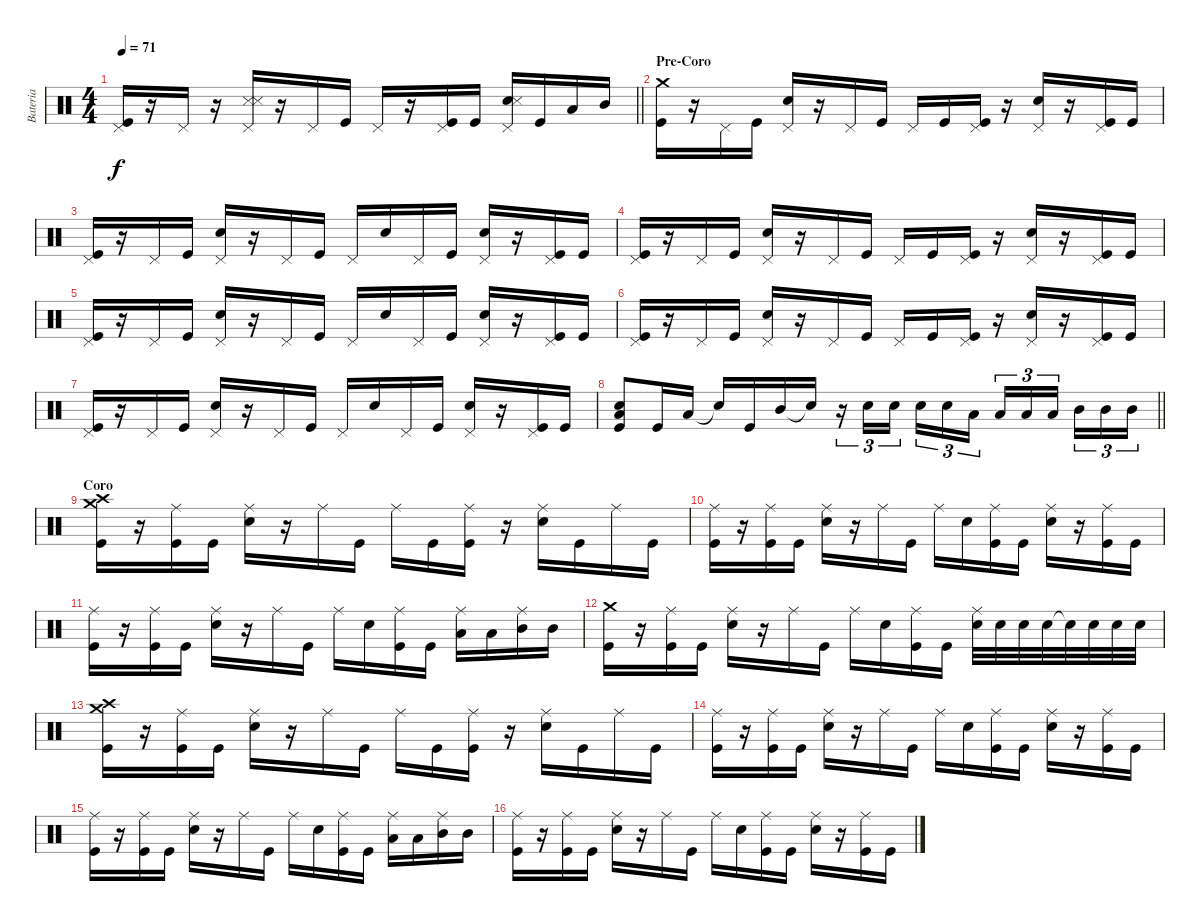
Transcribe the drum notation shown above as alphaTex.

\track ("Bateria" "Bateria") {instrument percussion}
\staff {score}
\articulation defaults
\ts (4 4)
\tempo 71
\clef neutral
\barLineRight lightlight
\ks c
("Pedal Hi-Hat (hit)" "Kick (hit)").16{dy f} r.16 "Pedal Hi-Hat (hit)".16 r.16 ("Pedal Hi-Hat (hit)" "Metronome (hit)" "Metronome (hit)").16 r.16 "Pedal Hi-Hat (hit)".16 "Kick (hit)".16 "Pedal Hi-Hat (hit)".16 r.16 ("Pedal Hi-Hat (hit)" "Kick (hit)").16 "Kick (hit)".16 ("Pedal Hi-Hat (hit)" "Snare (hit) 2" "Metronome (hit)").16 "Kick (hit)".16 "Low Tom (hit)".16 "Mid Tom (hit)".16 |
\section ("" "Pre-Coro")
("Crash medium (hit)" "Kick (hit)").16 r.16 "Pedal Hi-Hat (hit)".16 "Kick (hit)".16 ("Pedal Hi-Hat (hit)" "Snare (hit) 2").16 r.16 "Pedal Hi-Hat (hit)".16 "Kick (hit)".16 "Pedal Hi-Hat (hit)".16 "Kick (hit)".16 ("Pedal Hi-Hat (hit)" "Kick (hit)").16 r.16 ("Pedal Hi-Hat (hit)" "Snare (hit) 2").16 r.16 ("Pedal Hi-Hat (hit)" "Kick (hit)").16 "Kick (hit)".16 |
("Pedal Hi-Hat (hit)" "Kick (hit)").16 r.16 "Pedal Hi-Hat (hit)".16 "Kick (hit)".16 ("Pedal Hi-Hat (hit)" "Snare (hit) 2").16 r.16 "Pedal Hi-Hat (hit)".16 "Kick (hit)".16 "Pedal Hi-Hat (hit)".16 "Snare (hit) 2".16 "Pedal Hi-Hat (hit)".16 "Kick (hit)".16 ("Pedal Hi-Hat (hit)" "Snare (hit) 2").16 r.16 ("Pedal Hi-Hat (hit)" "Kick (hit)").16 "Kick (hit)".16 |
("Pedal Hi-Hat (hit)" "Kick (hit)").16 r.16 "Pedal Hi-Hat (hit)".16 "Kick (hit)".16 ("Pedal Hi-Hat (hit)" "Snare (hit) 2").16 r.16 "Pedal Hi-Hat (hit)".16 "Kick (hit)".16 "Pedal Hi-Hat (hit)".16 "Kick (hit)".16 ("Pedal Hi-Hat (hit)" "Kick (hit)").16 r.16 ("Pedal Hi-Hat (hit)" "Snare (hit) 2").16 r.16 ("Pedal Hi-Hat (hit)" "Kick (hit)").16 "Kick (hit)".16 |
("Pedal Hi-Hat (hit)" "Kick (hit)").16 r.16 "Pedal Hi-Hat (hit)".16 "Kick (hit)".16 ("Pedal Hi-Hat (hit)" "Snare (hit) 2").16 r.16 "Pedal Hi-Hat (hit)".16 "Kick (hit)".16 "Pedal Hi-Hat (hit)".16 "Snare (hit) 2".16 "Pedal Hi-Hat (hit)".16 "Kick (hit)".16 ("Pedal Hi-Hat (hit)" "Snare (hit) 2").16 r.16 ("Pedal Hi-Hat (hit)" "Kick (hit)").16 "Kick (hit)".16 |
("Pedal Hi-Hat (hit)" "Kick (hit)").16 r.16 "Pedal Hi-Hat (hit)".16 "Kick (hit)".16 ("Pedal Hi-Hat (hit)" "Snare (hit) 2").16 r.16 "Pedal Hi-Hat (hit)".16 "Kick (hit)".16 "Pedal Hi-Hat (hit)".16 "Kick (hit)".16 ("Pedal Hi-Hat (hit)" "Kick (hit)").16 r.16 ("Pedal Hi-Hat (hit)" "Snare (hit) 2").16 r.16 ("Pedal Hi-Hat (hit)" "Kick (hit)").16 "Kick (hit)".16 |
("Pedal Hi-Hat (hit)" "Kick (hit)").16 r.16 "Pedal Hi-Hat (hit)".16 "Kick (hit)".16 ("Pedal Hi-Hat (hit)" "Snare (hit) 2").16 r.16 "Pedal Hi-Hat (hit)".16 "Kick (hit)".16 "Pedal Hi-Hat (hit)".16 "Snare (hit) 2".16 "Pedal Hi-Hat (hit)".16 "Kick (hit)".16 ("Pedal Hi-Hat (hit)" "Snare (hit) 2").16 r.16 ("Pedal Hi-Hat (hit)" "Kick (hit)").16 "Kick (hit)".16 |
\barLineRight lightlight
("Snare (hit) 2" "Kick (hit)" "Low Tom (hit)").8{bd 60} "Kick (hit)".16 "Low Tom (hit)".16 "Snare (hit)"{t}.16 "Kick (hit)".16 "Mid Tom (hit)".16 "Snare (hit)"{t}.16 r.16{tu (3 2)} "Snare (hit) 2".16{tu (3 2)} "Snare (hit) 2".16{tu (3 2) beam splitsecondary} "Snare (hit) 2".16{tu (3 2)} "Snare (hit) 2".16{tu (3 2)} "Low Tom (hit)".16{tu (3 2)} "Low Tom (hit)".16{tu (3 2)} "Low Tom (hit)".16{tu (3 2)} "Low Tom (hit)".16{tu (3 2) beam splitsecondary} "Mid Tom (hit)".16{tu (3 2)} "Mid Tom (hit)".16{tu (3 2)} "Mid Tom (hit)".16{tu (3 2)} |
\section ("" "Coro")
("Crash high (hit)" "Crash medium (hit)" "Kick (hit)").16 r.16 ("Ride (middle)" "Kick (hit)").16 "Kick (hit)".16 ("Ride (middle)" "Snare (hit) 2").16 r.16 "Ride (middle)".16 "Kick (hit)".16 "Ride (middle)".16 "Kick (hit)".16 ("Ride (middle)" "Kick (hit)").16 r.16 ("Ride (middle)" "Snare (hit) 2").16 "Kick (hit)".16 "Ride (middle)".16 "Kick (hit)".16 |
("Ride (middle)" "Kick (hit)").16 r.16 ("Ride (middle)" "Kick (hit)").16 "Kick (hit)".16 ("Ride (middle)" "Snare (hit) 2").16 r.16 "Ride (middle)".16 "Kick (hit)".16 "Ride (middle)".16 "Snare (hit) 2".16 ("Ride (middle)" "Kick (hit)").16 "Kick (hit)".16 ("Ride (middle)" "Snare (hit) 2").16 r.16 ("Ride (middle)" "Kick (hit)").16 "Kick (hit)".16 |
("Ride (middle)" "Kick (hit)").16 r.16 ("Ride (middle)" "Kick (hit)").16 "Kick (hit)".16 ("Ride (middle)" "Snare (hit) 2").16 r.16 "Ride (middle)".16 "Kick (hit)".16 "Ride (middle)".16 "Snare (hit) 2".16 ("Ride (middle)" "Kick (hit)").16 "Kick (hit)".16 ("Ride (middle)" "Low Tom (hit)").16 "Low Tom (hit)".16 ("Ride (middle)" "Mid Tom (hit)").16 "Mid Tom (hit)".16 |
("Crash medium (hit)" "Kick (hit)").16 r.16 ("Ride (middle)" "Kick (hit)").16 "Kick (hit)".16 ("Ride (middle)" "Snare (hit) 2").16 r.16 "Ride (middle)".16 "Kick (hit)".16 "Ride (middle)".16 "Snare (hit) 2".16 ("Ride (middle)" "Kick (hit)").16 "Kick (hit)".16 ("Ride (middle)" "Snare (hit) 2").32 "Snare (hit) 2".32 "Snare (hit) 2".32 "Snare (hit) 2".32 "Snare (hit) 2"{t}.32 "Snare (hit) 2".32 "Snare (hit) 2".32 "Snare (hit) 2".32 |
("Crash high (hit)" "Crash medium (hit)" "Kick (hit)").16 r.16 ("Ride (middle)" "Kick (hit)").16 "Kick (hit)".16 ("Ride (middle)" "Snare (hit) 2").16 r.16 "Ride (middle)".16 "Kick (hit)".16 "Ride (middle)".16 "Kick (hit)".16 ("Ride (middle)" "Kick (hit)").16 r.16 ("Ride (middle)" "Snare (hit) 2").16 "Kick (hit)".16 "Ride (middle)".16 "Kick (hit)".16 |
("Ride (middle)" "Kick (hit)").16 r.16 ("Ride (middle)" "Kick (hit)").16 "Kick (hit)".16 ("Ride (middle)" "Snare (hit) 2").16 r.16 "Ride (middle)".16 "Kick (hit)".16 "Ride (middle)".16 "Snare (hit) 2".16 ("Ride (middle)" "Kick (hit)").16 "Kick (hit)".16 ("Ride (middle)" "Snare (hit) 2").16 r.16 ("Ride (middle)" "Kick (hit)").16 "Kick (hit)".16 |
("Ride (middle)" "Kick (hit)").16 r.16 ("Ride (middle)" "Kick (hit)").16 "Kick (hit)".16 ("Ride (middle)" "Snare (hit) 2").16 r.16 "Ride (middle)".16 "Kick (hit)".16 "Ride (middle)".16 "Snare (hit) 2".16 ("Ride (middle)" "Kick (hit)").16 "Kick (hit)".16 ("Ride (middle)" "Low Tom (hit)").16 "Low Tom (hit)".16 ("Ride (middle)" "Mid Tom (hit)").16 "Mid Tom (hit)".16 |
("Ride (middle)" "Kick (hit)").16 r.16 ("Ride (middle)" "Kick (hit)").16 "Kick (hit)".16 ("Ride (middle)" "Snare (hit) 2").16 r.16 "Ride (middle)".16 "Kick (hit)".16 "Ride (middle)".16 "Snare (hit) 2".16 ("Ride (middle)" "Kick (hit)").16 "Kick (hit)".16 ("Ride (middle)" "Snare (hit) 2").16 r.16 ("Ride (middle)" "Kick (hit)").16 "Kick (hit)".16
